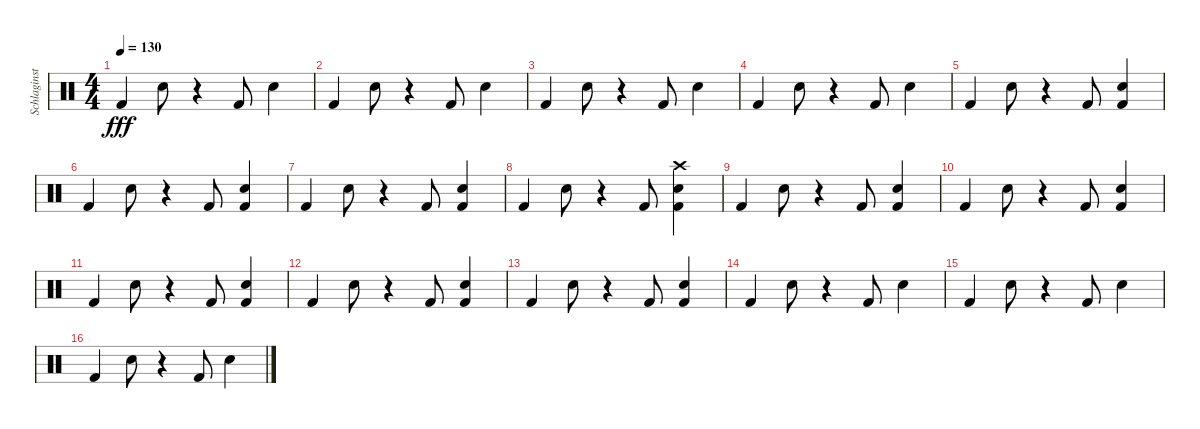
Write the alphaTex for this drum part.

\track ("Schlaginstrumente - Auswahl" "Schlaginst") {instrument percussion}
\staff {score}
\articulation defaults
\ts (4 4)
\tempo 130
\clef neutral
\ks c "Kick (hit) 2".4{dy fff} "Snare (hit) 2".8
r.4 "Kick (hit) 2".8 "Snare (hit) 2".4 |
"Kick (hit) 2".4 "Snare (hit) 2".8 r.4 "Kick (hit) 2".8 "Snare (hit) 2".4 |
"Kick (hit) 2".4 "Snare (hit) 2".8 r.4 "Kick (hit) 2".8 "Snare (hit) 2".4 |
"Kick (hit) 2".4 "Snare (hit) 2".8 r.4 "Kick (hit) 2".8 "Snare (hit) 2".4 |
"Kick (hit) 2".4 "Snare (hit) 2".8 r.4 "Kick (hit) 2".8 ("Snare (hit) 2" "Kick (hit) 2").4 |
"Kick (hit) 2".4 "Snare (hit) 2".8 r.4 "Kick (hit) 2".8 ("Snare (hit) 2" "Kick (hit) 2").4 |
"Kick (hit) 2".4 "Snare (hit) 2".8 r.4 "Kick (hit) 2".8 ("Snare (hit) 2" "Kick (hit) 2").4 |
"Kick (hit) 2".4 "Snare (hit) 2".8 r.4 "Kick (hit) 2".8 ("Crash high (hit)" "Snare (hit) 2" "Kick (hit) 2").4 |
"Kick (hit) 2".4 "Snare (hit) 2".8 r.4 "Kick (hit) 2".8 ("Snare (hit) 2" "Kick (hit) 2").4 |
"Kick (hit) 2".4 "Snare (hit) 2".8 r.4 "Kick (hit) 2".8 ("Snare (hit) 2" "Kick (hit) 2").4 |
"Kick (hit) 2".4 "Snare (hit) 2".8 r.4 "Kick (hit) 2".8 ("Snare (hit) 2" "Kick (hit) 2").4 |
"Kick (hit) 2".4 "Snare (hit) 2".8 r.4 "Kick (hit) 2".8 ("Snare (hit) 2" "Kick (hit) 2").4 |
"Kick (hit) 2".4 "Snare (hit) 2".8 r.4 "Kick (hit) 2".8 ("Snare (hit) 2" "Kick (hit) 2").4 |
"Kick (hit) 2".4 "Snare (hit) 2".8 r.4 "Kick (hit) 2".8 "Snare (hit) 2".4 |
"Kick (hit) 2".4 "Snare (hit) 2".8 r.4 "Kick (hit) 2".8 "Snare (hit) 2".4 |
"Kick (hit) 2".4 "Snare (hit) 2".8 r.4 "Kick (hit) 2".8 "Snare (hit) 2".4
